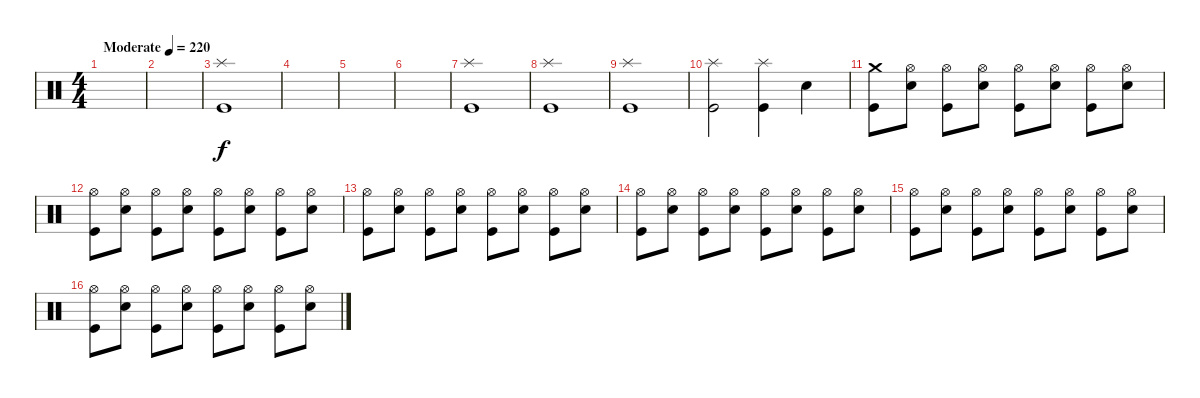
\track "" {instrument percussion}
\staff {score}
\articulation defaults
\ts (4 4)
\tempo (220 "Moderate")
\clef neutral
\ks c
|
|
("Kick (hit)" "Splash (hit)").1 |
|
|
|
("Kick (hit)" "Splash (hit)").1 |
("Kick (hit)" "Splash (hit)").1 |
("Kick (hit)" "Splash (hit)").1 |
("Kick (hit)" "Splash (hit)").2 ("Kick (hit)" "Splash (hit)").4 "Electric Snare (hit)".4 |
("Kick (hit)" "Crash medium (hit)").8 ("Electric Snare (hit)" "Hi-Hat (open)").8 ("Kick (hit)" "Hi-Hat (open)").8 ("Electric Snare (hit)" "Hi-Hat (open)").8 ("Kick (hit)" "Hi-Hat (open)").8 ("Electric Snare (hit)" "Hi-Hat (open)").8 ("Kick (hit)" "Hi-Hat (open)").8 ("Electric Snare (hit)" "Hi-Hat (open)").8 |
("Kick (hit)" "Hi-Hat (open)").8 ("Electric Snare (hit)" "Hi-Hat (open)").8 ("Kick (hit)" "Hi-Hat (open)").8 ("Electric Snare (hit)" "Hi-Hat (open)").8 ("Kick (hit)" "Hi-Hat (open)").8 ("Electric Snare (hit)" "Hi-Hat (open)").8 ("Kick (hit)" "Hi-Hat (open)").8 ("Electric Snare (hit)" "Hi-Hat (open)").8 |
("Kick (hit)" "Hi-Hat (open)").8 ("Electric Snare (hit)" "Hi-Hat (open)").8 ("Kick (hit)" "Hi-Hat (open)").8 ("Electric Snare (hit)" "Hi-Hat (open)").8 ("Kick (hit)" "Hi-Hat (open)").8 ("Electric Snare (hit)" "Hi-Hat (open)").8 ("Kick (hit)" "Hi-Hat (open)").8 ("Electric Snare (hit)" "Hi-Hat (open)").8 |
("Kick (hit)" "Hi-Hat (open)").8 ("Electric Snare (hit)" "Hi-Hat (open)").8 ("Kick (hit)" "Hi-Hat (open)").8 ("Electric Snare (hit)" "Hi-Hat (open)").8 ("Kick (hit)" "Hi-Hat (open)").8 ("Electric Snare (hit)" "Hi-Hat (open)").8 ("Kick (hit)" "Hi-Hat (open)").8 ("Electric Snare (hit)" "Hi-Hat (open)").8 |
("Kick (hit)" "Hi-Hat (open)").8 ("Electric Snare (hit)" "Hi-Hat (open)").8 ("Kick (hit)" "Hi-Hat (open)").8 ("Electric Snare (hit)" "Hi-Hat (open)").8 ("Kick (hit)" "Hi-Hat (open)").8 ("Electric Snare (hit)" "Hi-Hat (open)").8 ("Kick (hit)" "Hi-Hat (open)").8 ("Electric Snare (hit)" "Hi-Hat (open)").8 |
("Kick (hit)" "Hi-Hat (open)").8 ("Electric Snare (hit)" "Hi-Hat (open)").8 ("Kick (hit)" "Hi-Hat (open)").8 ("Electric Snare (hit)" "Hi-Hat (open)").8 ("Kick (hit)" "Hi-Hat (open)").8 ("Electric Snare (hit)" "Hi-Hat (open)").8 ("Kick (hit)" "Hi-Hat (open)").8 ("Electric Snare (hit)" "Hi-Hat (open)").8
